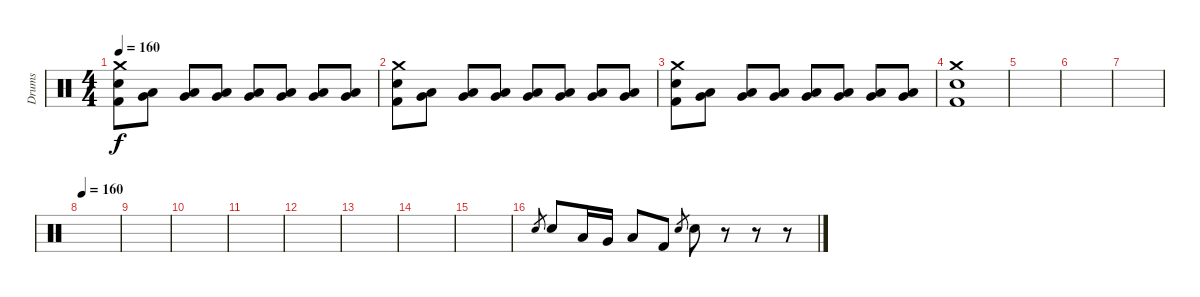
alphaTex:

\track ("Drums" "Drums") {instrument percussion}
\staff {score}
\articulation defaults
\ts (4 4)
\tempo 160
\clef neutral
\ks c
("Crash medium (hit)" "Electric Snare (hit)" "Kick (hit) 2").8{dy f} ("Low Tom (hit)" "Very Low Tom (hit)").8 ("Low Tom (hit)" "Very Low Tom (hit)").8 ("Low Tom (hit)" "Very Low Tom (hit)").8 ("Low Tom (hit)" "Very Low Tom (hit)").8 ("Low Tom (hit)" "Very Low Tom (hit)").8 ("Low Tom (hit)" "Very Low Tom (hit)").8 ("Low Tom (hit)" "Very Low Tom (hit)").8 |
("Crash medium (hit)" "Electric Snare (hit)" "Kick (hit) 2").8 ("Low Tom (hit)" "Very Low Tom (hit)").8 ("Low Tom (hit)" "Very Low Tom (hit)").8 ("Low Tom (hit)" "Very Low Tom (hit)").8 ("Low Tom (hit)" "Very Low Tom (hit)").8 ("Low Tom (hit)" "Very Low Tom (hit)").8 ("Low Tom (hit)" "Very Low Tom (hit)").8 ("Low Tom (hit)" "Very Low Tom (hit)").8 |
("Crash medium (hit)" "Electric Snare (hit)" "Kick (hit) 2").8 ("Low Tom (hit)" "Very Low Tom (hit)").8 ("Low Tom (hit)" "Very Low Tom (hit)").8 ("Low Tom (hit)" "Very Low Tom (hit)").8 ("Low Tom (hit)" "Very Low Tom (hit)").8 ("Low Tom (hit)" "Very Low Tom (hit)").8 ("Low Tom (hit)" "Very Low Tom (hit)").8 ("Low Tom (hit)" "Very Low Tom (hit)").8 |
("Crash medium (hit)" "Electric Snare (hit)" "Kick (hit) 2").1 |
|
|
|
\tempo 160
|
|
|
|
|
|
|
|
"Electric Snare (hit)".8{gr} "Electric Snare (hit)".8 "Low Tom (hit)".16 "Very Low Tom (hit)".16 "Low Floor Tom (hit)".8 "Kick (hit) 2".8 "Electric Snare (hit)".8{gr} "Electric Snare (hit)".8 r.8 r.8 r.8
